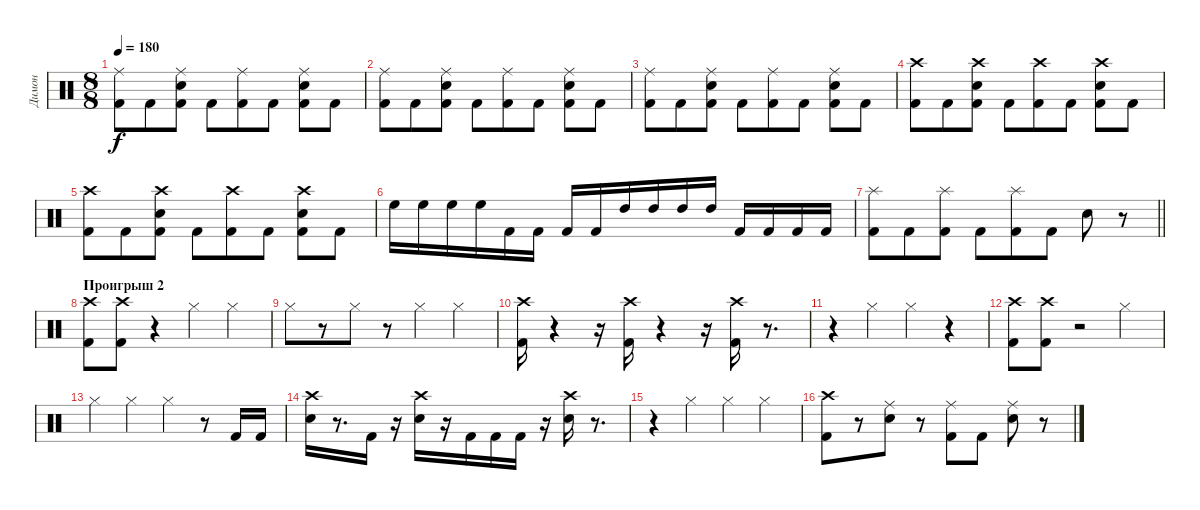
\track ("Димон" "Димон") {instrument percussion}
\staff {score}
\articulation defaults
\ts (8 8)
\tempo 180
\clef neutral
\ks c
("Ride (middle)" "Kick (hit) 2").8{dy f} "Kick (hit) 2".8 ("Electric Snare (hit)" "Ride (middle)" "Kick (hit) 2").8 "Kick (hit) 2".8 ("Ride (middle)" "Kick (hit) 2").8 "Kick (hit) 2".8 ("Electric Snare (hit)" "Ride (middle)" "Kick (hit) 2").8 "Kick (hit) 2".8 |
("Ride (middle)" "Kick (hit) 2").8 "Kick (hit) 2".8 ("Electric Snare (hit)" "Ride (middle)" "Kick (hit) 2").8 "Kick (hit) 2".8 ("Ride (middle)" "Kick (hit) 2").8 "Kick (hit) 2".8 ("Electric Snare (hit)" "Ride (middle)" "Kick (hit) 2").8 "Kick (hit) 2".8 |
("Ride (middle)" "Kick (hit) 2").8 "Kick (hit) 2".8 ("Electric Snare (hit)" "Ride (middle)" "Kick (hit) 2").8 "Kick (hit) 2".8 ("Ride (middle)" "Kick (hit) 2").8 "Kick (hit) 2".8 ("Electric Snare (hit)" "Ride (middle)" "Kick (hit) 2").8 "Kick (hit) 2".8 |
("Crash high (hit)" "Kick (hit) 2").8 "Kick (hit) 2".8 ("Electric Snare (hit)" "Crash high (hit)" "Kick (hit) 2").8 "Kick (hit) 2".8 ("Crash high (hit)" "Kick (hit) 2").8 "Kick (hit) 2".8 ("Electric Snare (hit)" "Crash high (hit)" "Kick (hit) 2").8 "Kick (hit) 2".8 |
("Crash high (hit)" "Kick (hit) 2").8 "Kick (hit) 2".8 ("Electric Snare (hit)" "Crash high (hit)" "Kick (hit) 2").8 "Kick (hit) 2".8 ("Crash high (hit)" "Kick (hit) 2").8 "Kick (hit) 2".8 ("Electric Snare (hit)" "Crash high (hit)" "Kick (hit) 2").8 "Kick (hit) 2".8 |
"High Floor Tom (hit)".16 "High Floor Tom (hit)".16 "High Floor Tom (hit)".16 "High Floor Tom (hit)".16 "Kick (hit) 2".16 "Kick (hit) 2".16 "Kick (hit) 2".16 "Kick (hit) 2".16 "High Tom (hit)".16 "High Tom (hit)".16 "High Tom (hit)".16 "High Tom (hit)".16 "Kick (hit) 2".16 "Kick (hit) 2".16 "Kick (hit) 2".16 "Kick (hit) 2".16 |
\barLineRight lightlight
("Splash (hit)" "Kick (hit) 2").8 "Kick (hit) 2".8 ("Splash (hit)" "Kick (hit) 2").8 "Kick (hit) 2".8 ("Splash (hit)" "Kick (hit) 2").8 "Kick (hit) 2".8 "Electric Snare (hit)".8 r.8 |
\section ("" "Проигрыш 2")
("Crash high (hit)" "Kick (hit) 2").8 ("Crash high (hit)" "Kick (hit) 2").8 r.4 "Hi-Hat (closed)".4 "Hi-Hat (closed)".4 |
"Hi-Hat (closed)".8 r.8 "Hi-Hat (closed)".8 r.8 "Hi-Hat (closed)".4 "Hi-Hat (closed)".4 |
("Crash high (hit)" "Kick (hit) 2").16 r.4 r.16 ("Kick (hit) 2" "Crash high (hit)").16 r.4 r.16 ("Kick (hit) 2" "Crash high (hit)").16 r.8{d} |
r.4 "Hi-Hat (closed)".4 "Hi-Hat (closed)".4 r.4 |
("Crash high (hit)" "Kick (hit) 2").8 ("Crash high (hit)" "Kick (hit) 2").8 r.2 "Hi-Hat (closed)".4 |
"Hi-Hat (closed)".4 "Hi-Hat (closed)".4 "Hi-Hat (closed)".4 r.8 "Kick (hit) 2".16 "Kick (hit) 2".16 |
("Crash high (hit)" "Electric Snare (hit)").16 r.8{d} "Kick (hit) 2".16 r.16 ("Electric Snare (hit)" "Crash high (hit)").16 r.16 "Kick (hit) 2".16 "Kick (hit) 2".16 "Kick (hit) 2".16 r.16 ("Electric Snare (hit)" "Crash high (hit)").16 r.8{d} |
r.4 "Hi-Hat (closed)".4 "Hi-Hat (closed)".4 "Hi-Hat (closed)".4 |
("Kick (hit) 2" "Crash high (hit)").8 r.8 ("Electric Snare (hit)" "Ride (middle)").8 r.8 ("Kick (hit) 2" "Ride (middle)").8 "Kick (hit) 2".8 ("Electric Snare (hit)" "Ride (middle)").8 r.8
